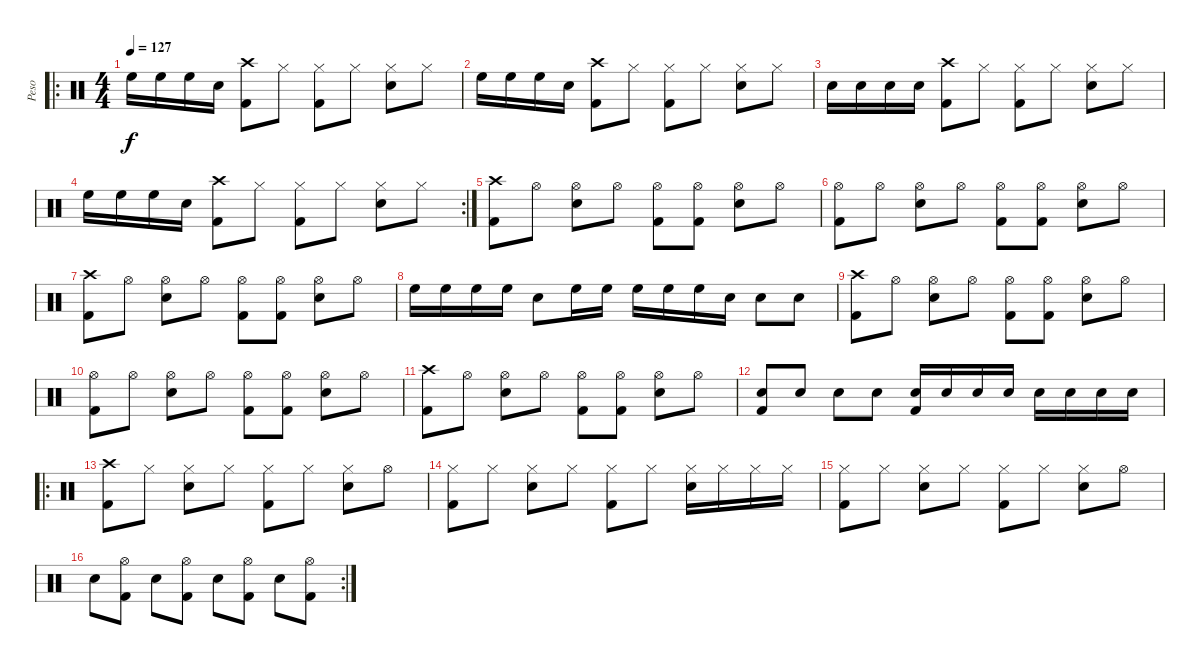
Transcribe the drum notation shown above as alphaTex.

\track ("Peso" "Peso") {instrument percussion}
\staff {score}
\articulation defaults
\ro
\ts (4 4)
\tempo 127
\clef neutral
\ks c "High Floor Tom (hit)".16{dy f} "High Floor Tom (hit)".16 "High Floor Tom (hit)".16 "Snare (hit)"{x}.16
("Crash high (hit)" "Kick (hit) 2").8 "Hi-Hat (closed)".8 ("Hi-Hat (closed)" "Kick (hit) 2").8 "Hi-Hat (closed)".8 ("Hi-Hat (closed)" "Snare (hit) 2").8 "Hi-Hat (closed)".8 |
"High Floor Tom (hit)".16 "High Floor Tom (hit)".16 "High Floor Tom (hit)".16 "Snare (hit)"{x}.16 ("Crash high (hit)" "Kick (hit) 2").8 "Hi-Hat (closed)".8 ("Hi-Hat (closed)" "Kick (hit) 2").8 "Hi-Hat (closed)".8 ("Hi-Hat (closed)" "Snare (hit) 2").8 "Hi-Hat (closed)".8 |
"Snare (hit) 2".16 "Snare (hit) 2".16 "Snare (hit) 2".16 "Snare (hit)"{x}.16 ("Crash high (hit)" "Kick (hit) 2").8 "Hi-Hat (closed)".8 ("Hi-Hat (closed)" "Kick (hit) 2").8 "Hi-Hat (closed)".8 ("Hi-Hat (closed)" "Snare (hit) 2").8 "Hi-Hat (closed)".8 |
\rc 2 "High Floor Tom (hit)".16 "High Floor Tom (hit)".16 "High Floor Tom (hit)".16 "Snare (hit)"{x}.16
("Crash high (hit)" "Kick (hit) 2").8 "Hi-Hat (closed)".8 ("Hi-Hat (closed)" "Kick (hit) 2").8 "Hi-Hat (closed)".8 ("Hi-Hat (closed)" "Snare (hit) 2").8 "Hi-Hat (closed)".8 |
("Crash high (hit)" "Kick (hit) 2").8 "Hi-Hat (open)"{x}.8 ("Hi-Hat (open)" "Snare (hit) 2").8 "Hi-Hat (open)"{x}.8 ("Hi-Hat (open)" "Kick (hit) 2").8 ("Hi-Hat (open)"{x} "Kick (hit) 2").8 ("Hi-Hat (open)" "Snare (hit) 2").8 "Hi-Hat (open)"{x}.8 |
("Hi-Hat (open)" "Kick (hit) 2").8 "Hi-Hat (open)"{x}.8 ("Hi-Hat (open)" "Snare (hit) 2").8 "Hi-Hat (open)"{x}.8 ("Hi-Hat (open)" "Kick (hit) 2").8 ("Hi-Hat (open)"{x} "Kick (hit) 2").8 ("Hi-Hat (open)" "Snare (hit) 2").8 "Hi-Hat (open)"{x}.8 |
("Crash high (hit)" "Kick (hit) 2").8 "Hi-Hat (open)"{x}.8 ("Hi-Hat (open)" "Snare (hit) 2").8 "Hi-Hat (open)"{x}.8 ("Hi-Hat (open)" "Kick (hit) 2").8 ("Hi-Hat (open)"{x} "Kick (hit) 2").8 ("Hi-Hat (open)" "Snare (hit) 2").8 "Hi-Hat (open)"{x}.8 |
"High Floor Tom (hit)".16 "High Floor Tom (hit)".16 "High Floor Tom (hit)".16 "High Floor Tom (hit)"{x}.16 "Snare (hit) 2".8 "High Floor Tom (hit)"{x}.16 "High Floor Tom (hit)"{x}.16 "High Floor Tom (hit)".16 "High Floor Tom (hit)".16 "High Floor Tom (hit)".16 "Snare (hit) 2"{x}.16 "Snare (hit) 2".8 "Snare (hit)"{x}.8 |
("Crash high (hit)" "Kick (hit) 2").8 "Hi-Hat (open)"{x}.8 ("Hi-Hat (open)" "Snare (hit) 2").8 "Hi-Hat (open)"{x}.8 ("Hi-Hat (open)" "Kick (hit) 2").8 ("Hi-Hat (open)"{x} "Kick (hit) 2").8 ("Hi-Hat (open)" "Snare (hit) 2").8 "Hi-Hat (open)"{x}.8 |
("Hi-Hat (open)" "Kick (hit) 2").8 "Hi-Hat (open)"{x}.8 ("Hi-Hat (open)" "Snare (hit) 2").8 "Hi-Hat (open)"{x}.8 ("Hi-Hat (open)" "Kick (hit) 2").8 ("Hi-Hat (open)"{x} "Kick (hit) 2").8 ("Hi-Hat (open)" "Snare (hit) 2").8 "Hi-Hat (open)"{x}.8 |
("Crash high (hit)" "Kick (hit) 2").8 "Hi-Hat (open)"{x}.8 ("Hi-Hat (open)" "Snare (hit) 2").8 "Hi-Hat (open)"{x}.8 ("Hi-Hat (open)" "Kick (hit) 2").8 ("Hi-Hat (open)"{x} "Kick (hit) 2").8 ("Hi-Hat (open)" "Snare (hit) 2").8 "Hi-Hat (open)"{x}.8 |
("Snare (hit) 2" "Kick (hit) 2").8 "Snare (hit) 2".8 "Snare (hit) 2".8 "Snare (hit) 2".8 ("Snare (hit) 2" "Kick (hit) 2").16 "Snare (hit) 2".16 "Snare (hit) 2".16 "Snare (hit) 2".16 "Snare (hit) 2".16 "Snare (hit) 2".16 "Snare (hit) 2".16 "Snare (hit) 2".16 |
\ro
("Crash high (hit)" "Kick (hit) 2").8 "Hi-Hat (closed)".8 ("Hi-Hat (closed)" "Snare (hit) 2").8 "Hi-Hat (closed)".8 ("Hi-Hat (closed)" "Kick (hit) 2").8 "Hi-Hat (closed)".8 ("Hi-Hat (closed)" "Snare (hit) 2").8 "Hi-Hat (open)".8 |
("Hi-Hat (closed)" "Kick (hit) 2").8 "Hi-Hat (closed)".8 ("Hi-Hat (closed)" "Snare (hit) 2").8 "Hi-Hat (closed)".8 ("Hi-Hat (closed)" "Kick (hit) 2").8 "Hi-Hat (closed)".8 ("Hi-Hat (closed)" "Snare (hit) 2").16 "Hi-Hat (closed)".16 "Hi-Hat (closed)".16 "Hi-Hat (closed)".16 |
("Hi-Hat (closed)" "Kick (hit) 2").8 "Hi-Hat (closed)".8 ("Hi-Hat (closed)" "Snare (hit) 2").8 "Hi-Hat (closed)".8 ("Hi-Hat (closed)" "Kick (hit) 2").8 "Hi-Hat (closed)".8 ("Hi-Hat (closed)" "Snare (hit) 2").8 "Hi-Hat (open)".8 |
\rc 2 "Snare (hit) 2".8
("Hi-Hat (open)" "Kick (hit) 2").8 "Snare (hit) 2".8 ("Hi-Hat (open)" "Kick (hit) 2").8 "Snare (hit) 2".8 ("Hi-Hat (open)" "Kick (hit) 2").8 "Snare (hit) 2".8 ("Hi-Hat (open)" "Kick (hit) 2").8
